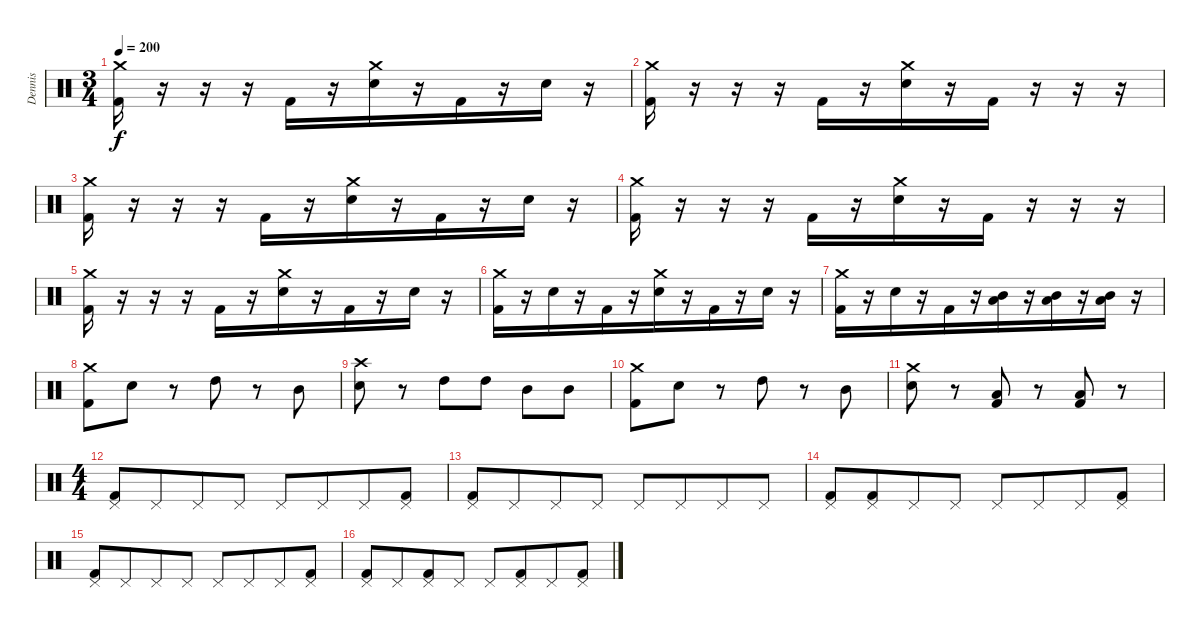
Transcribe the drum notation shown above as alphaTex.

\track ("Dennis" "Dennis") {instrument percussion}
\staff {score}
\articulation defaults
\ts (3 4)
\tempo 200
\clef neutral
\ks c
("Crash medium (hit)" "Kick (hit) 2").16{dy f} r.16 r.16{beam merge} r.16{beam merge} "Kick (hit) 2".16{beam merge} r.16 ("Crash medium (hit)" "Electric Snare (hit)").16{beam merge} r.16 "Kick (hit) 2".16 r.16 "Electric Snare (hit)".16 r.16 |
("Crash medium (hit)" "Kick (hit) 2").16 r.16 r.16{beam merge} r.16{beam merge} "Kick (hit) 2".16{beam merge} r.16 ("Crash medium (hit)" "Electric Snare (hit)").16{beam merge} r.16 "Kick (hit) 2".16 r.16 r.16 r.16 |
("Crash medium (hit)" "Kick (hit) 2").16 r.16 r.16{beam merge} r.16{beam merge} "Kick (hit) 2".16{beam merge} r.16 ("Crash medium (hit)" "Electric Snare (hit)").16{beam merge} r.16 "Kick (hit) 2".16 r.16 "Electric Snare (hit)".16 r.16 |
("Crash medium (hit)" "Kick (hit) 2").16 r.16 r.16{beam merge} r.16{beam merge} "Kick (hit) 2".16{beam merge} r.16 ("Crash medium (hit)" "Electric Snare (hit)").16{beam merge} r.16 "Kick (hit) 2".16 r.16 r.16 r.16 |
("Crash medium (hit)" "Kick (hit) 2").16 r.16 r.16{beam merge} r.16{beam merge} "Kick (hit) 2".16{beam merge} r.16 ("Crash medium (hit)" "Electric Snare (hit)").16{beam merge} r.16 "Kick (hit) 2".16 r.16 "Electric Snare (hit)".16 r.16 |
("Crash medium (hit)" "Kick (hit) 2").16 r.16 "Electric Snare (hit)".16{beam merge} r.16{beam merge} "Kick (hit) 2".16{beam merge} r.16 ("Crash medium (hit)" "Electric Snare (hit)").16{beam merge} r.16 "Kick (hit) 2".16 r.16 "Electric Snare (hit)".16 r.16 |
("Crash medium (hit)" "Kick (hit) 2").16 r.16 "Electric Snare (hit)".16{beam merge} r.16{beam merge} "Kick (hit) 2".16{beam merge} r.16 ("Low Tom (hit)" "Mid Tom (hit)").16{beam merge} r.16 ("Low Tom (hit)" "Mid Tom (hit)").16 r.16 ("Low Tom (hit)" "Mid Tom (hit)").16 r.16 |
("Crash medium (hit)" "Kick (hit) 2").8 "Electric Snare (hit)".8 r.8{beam merge} "High Tom (hit)".8 r.8{beam merge} "Mid Tom (hit)".8 |
("Crash high (hit)" "Electric Snare (hit)").8 r.8 "High Tom (hit)".8 "High Tom (hit)".8 "Mid Tom (hit)".8{beam merge} "Mid Tom (hit)".8 |
("Crash medium (hit)" "Kick (hit) 2").8{beam merge} "Electric Snare (hit)".8 r.8{beam merge} "High Tom (hit)".8 r.8 "Mid Tom (hit)".8 |
("Crash medium (hit)" "Electric Snare (hit)").8 r.8{beam merge} ("Low Tom (hit)" "Kick (hit) 2").8 r.8 ("Low Tom (hit)" "Kick (hit) 2").8 r.8 |
\ts (4 4)
("Pedal Hi-Hat (hit)" "Kick (hit) 2").8 "Pedal Hi-Hat (hit)".8{beam merge} "Pedal Hi-Hat (hit)".8{beam merge} "Pedal Hi-Hat (hit)".8 "Pedal Hi-Hat (hit)".8 "Pedal Hi-Hat (hit)".8{beam merge} "Pedal Hi-Hat (hit)".8{beam merge} ("Pedal Hi-Hat (hit)" "Kick (hit) 2").8 |
("Pedal Hi-Hat (hit)" "Kick (hit) 2").8 "Pedal Hi-Hat (hit)".8{beam merge} "Pedal Hi-Hat (hit)".8{beam merge} "Pedal Hi-Hat (hit)".8 "Pedal Hi-Hat (hit)".8 "Pedal Hi-Hat (hit)".8{beam merge} "Pedal Hi-Hat (hit)".8{beam merge} "Pedal Hi-Hat (hit)".8 |
("Pedal Hi-Hat (hit)" "Kick (hit) 2").8 ("Pedal Hi-Hat (hit)" "Kick (hit) 2").8{beam merge} "Pedal Hi-Hat (hit)".8{beam merge} "Pedal Hi-Hat (hit)".8 "Pedal Hi-Hat (hit)".8 "Pedal Hi-Hat (hit)".8{beam merge} "Pedal Hi-Hat (hit)".8{beam merge} ("Pedal Hi-Hat (hit)" "Kick (hit) 2").8 |
("Pedal Hi-Hat (hit)" "Kick (hit) 2").8 "Pedal Hi-Hat (hit)".8{beam merge} "Pedal Hi-Hat (hit)".8{beam merge} "Pedal Hi-Hat (hit)".8 "Pedal Hi-Hat (hit)".8 "Pedal Hi-Hat (hit)".8{beam merge} "Pedal Hi-Hat (hit)".8{beam merge} ("Pedal Hi-Hat (hit)" "Kick (hit) 2").8 |
("Pedal Hi-Hat (hit)" "Kick (hit) 2").8 "Pedal Hi-Hat (hit)".8{beam merge} ("Pedal Hi-Hat (hit)" "Kick (hit) 2").8{beam merge} "Pedal Hi-Hat (hit)".8 "Pedal Hi-Hat (hit)".8 ("Pedal Hi-Hat (hit)" "Kick (hit) 2").8{beam merge} "Pedal Hi-Hat (hit)".8{beam merge} ("Pedal Hi-Hat (hit)" "Kick (hit) 2").8
